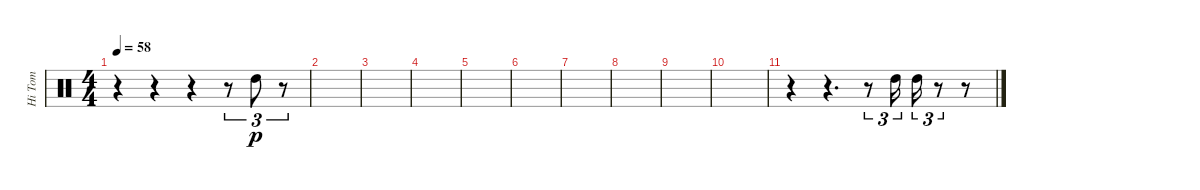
\track ("Hi Tom" "Hi Tom") {instrument percussion}
\staff {score}
\articulation defaults
\ts (4 4)
\tempo 58
\clef neutral
\ks c
r.4{dy p} r.4 r.4 r.8{tu (3 2)} "High Tom (hit)".8{tu (3 2)} r.8{tu (3 2)} |
|
|
|
|
|
|
|
|
|
r.4 r.4{d} r.8{tu (3 2)} "High Tom (hit)".16{tu (3 2)} "High Tom (hit)".16{tu (3 2)} r.8{tu (3 2)} r.8
